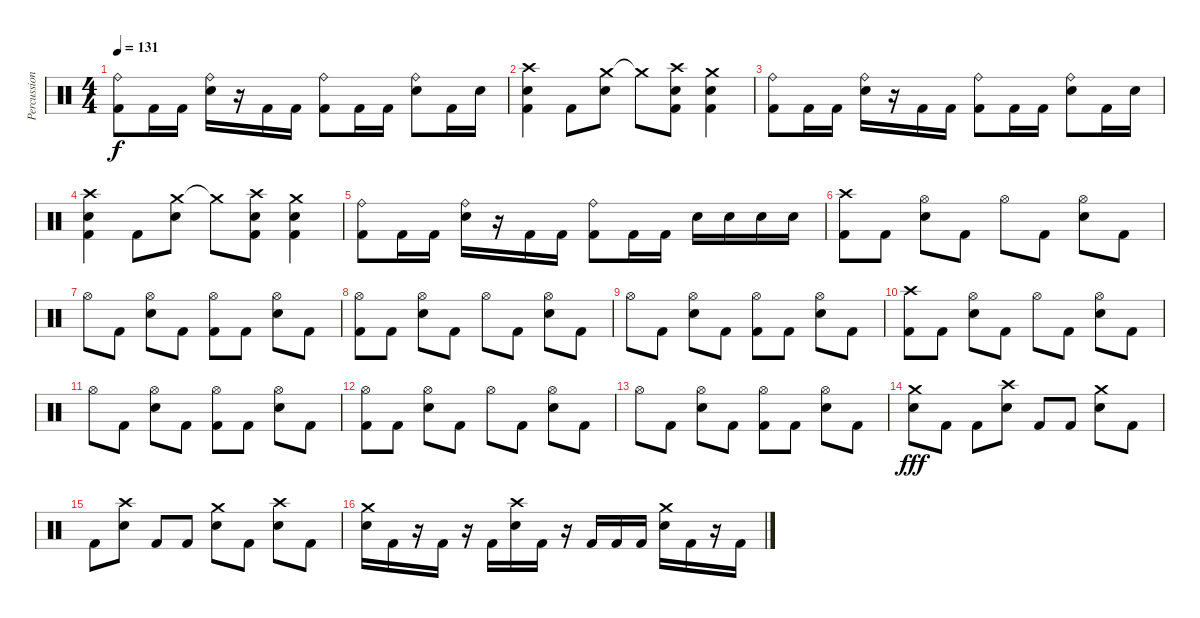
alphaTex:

\track ("Percussion" "Percussion") {instrument percussion}
\staff {score}
\articulation defaults
\ts (4 4)
\tempo 131
\clef neutral
\ks c
("Ride (bell)" "Kick (hit) 2").8{dy f} "Kick (hit) 2".16 "Kick (hit) 2".16 ("Ride (bell)" "Electric Snare (hit)").16 r.16 "Kick (hit) 2".16 "Kick (hit) 2".16 ("Ride (bell)" "Kick (hit) 2").8 "Kick (hit) 2".16 "Kick (hit) 2".16 ("Ride (bell)" "Electric Snare (hit)").8 "Kick (hit) 2".16 "Electric Snare (hit)".16 |
("Crash high (hit)" "Electric Snare (hit)" "Kick (hit) 2").4 "Kick (hit) 2".8 ("Crash medium (hit)" "Electric Snare (hit)").8 "Crash medium (hit)"{t}.8 ("Crash high (hit)" "Electric Snare (hit)" "Kick (hit) 2").8 ("Crash medium (hit)" "Electric Snare (hit)" "Kick (hit) 2").4 |
("Ride (bell)" "Kick (hit) 2").8 "Kick (hit) 2".16 "Kick (hit) 2".16 ("Ride (bell)" "Electric Snare (hit)").16 r.16 "Kick (hit) 2".16 "Kick (hit) 2".16 ("Ride (bell)" "Kick (hit) 2").8 "Kick (hit) 2".16 "Kick (hit) 2".16 ("Ride (bell)" "Electric Snare (hit)").8 "Kick (hit) 2".16 "Electric Snare (hit)".16 |
("Crash high (hit)" "Electric Snare (hit)" "Kick (hit) 2").4 "Kick (hit) 2".8 ("Crash medium (hit)" "Electric Snare (hit)").8 "Crash medium (hit)"{t}.8 ("Crash high (hit)" "Electric Snare (hit)" "Kick (hit) 2").8 ("Crash medium (hit)" "Electric Snare (hit)" "Kick (hit) 2").4 |
("Ride (bell)" "Kick (hit) 2").8 "Kick (hit) 2".16 "Kick (hit) 2".16 ("Ride (bell)" "Electric Snare (hit)").16 r.16 "Kick (hit) 2".16 "Kick (hit) 2".16 ("Ride (bell)" "Kick (hit) 2").8 "Kick (hit) 2".16 "Kick (hit) 2".16 "Electric Snare (hit)".16 "Electric Snare (hit)".16 "Electric Snare (hit)".16 "Electric Snare (hit)".16 |
("Crash high (hit)" "Kick (hit) 2").8 "Kick (hit) 2".8 ("Hi-Hat (open)" "Electric Snare (hit)").8 "Kick (hit) 2".8 "Hi-Hat (open)".8 "Kick (hit) 2".8 ("Hi-Hat (open)" "Electric Snare (hit)").8 "Kick (hit) 2".8 |
"Hi-Hat (open)".8 "Kick (hit) 2".8 ("Hi-Hat (open)" "Electric Snare (hit)").8 "Kick (hit) 2".8 ("Hi-Hat (open)" "Kick (hit) 2").8 "Kick (hit) 2".8 ("Hi-Hat (open)" "Electric Snare (hit)").8 "Kick (hit) 2".8 |
("Hi-Hat (open)" "Kick (hit) 2").8 "Kick (hit) 2".8 ("Hi-Hat (open)" "Electric Snare (hit)").8 "Kick (hit) 2".8 "Hi-Hat (open)".8 "Kick (hit) 2".8 ("Hi-Hat (open)" "Electric Snare (hit)").8 "Kick (hit) 2".8 |
"Hi-Hat (open)".8 "Kick (hit) 2".8 ("Hi-Hat (open)" "Electric Snare (hit)").8 "Kick (hit) 2".8 ("Hi-Hat (open)" "Kick (hit) 2").8 "Kick (hit) 2".8 ("Hi-Hat (open)" "Electric Snare (hit)").8 "Kick (hit) 2".8 |
("Crash high (hit)" "Kick (hit) 2").8 "Kick (hit) 2".8 ("Hi-Hat (open)" "Electric Snare (hit)").8 "Kick (hit) 2".8 "Hi-Hat (open)".8 "Kick (hit) 2".8 ("Hi-Hat (open)" "Electric Snare (hit)").8 "Kick (hit) 2".8 |
"Hi-Hat (open)".8 "Kick (hit) 2".8 ("Hi-Hat (open)" "Electric Snare (hit)").8 "Kick (hit) 2".8 ("Hi-Hat (open)" "Kick (hit) 2").8 "Kick (hit) 2".8 ("Hi-Hat (open)" "Electric Snare (hit)").8 "Kick (hit) 2".8 |
("Hi-Hat (open)" "Kick (hit) 2").8 "Kick (hit) 2".8 ("Hi-Hat (open)" "Electric Snare (hit)").8 "Kick (hit) 2".8 "Hi-Hat (open)".8 "Kick (hit) 2".8 ("Hi-Hat (open)" "Electric Snare (hit)").8 "Kick (hit) 2".8 |
"Hi-Hat (open)".8 "Kick (hit) 2".8 ("Hi-Hat (open)" "Electric Snare (hit)").8 "Kick (hit) 2".8 ("Hi-Hat (open)" "Kick (hit) 2").8 "Kick (hit) 2".8 ("Hi-Hat (open)" "Electric Snare (hit)").8 "Kick (hit) 2".8 |
("Crash medium (hit)" "Electric Snare (hit)").8{dy fff} "Kick (hit) 2".8 "Kick (hit) 2".8 ("Crash high (hit)" "Electric Snare (hit)").8 "Kick (hit) 2".8 "Kick (hit) 2".8 ("Crash medium (hit)" "Electric Snare (hit)").8 "Kick (hit) 2".8 |
"Kick (hit) 2".8 ("Crash high (hit)" "Electric Snare (hit)").8 "Kick (hit) 2".8 "Kick (hit) 2".8 ("Crash medium (hit)" "Electric Snare (hit)").8 "Kick (hit) 2".8 ("Crash high (hit)" "Electric Snare (hit)").8 "Kick (hit) 2".8 |
("Crash medium (hit)" "Electric Snare (hit)").16 "Kick (hit) 2".16 r.16 "Kick (hit) 2".16 r.16 "Kick (hit) 2".16 ("Crash high (hit)" "Electric Snare (hit)").16 "Kick (hit) 2".16 r.16 "Kick (hit) 2".16 "Kick (hit) 2".16 "Kick (hit) 2".16 ("Crash medium (hit)" "Electric Snare (hit)").16 "Kick (hit) 2".16 r.16 "Kick (hit) 2".16
